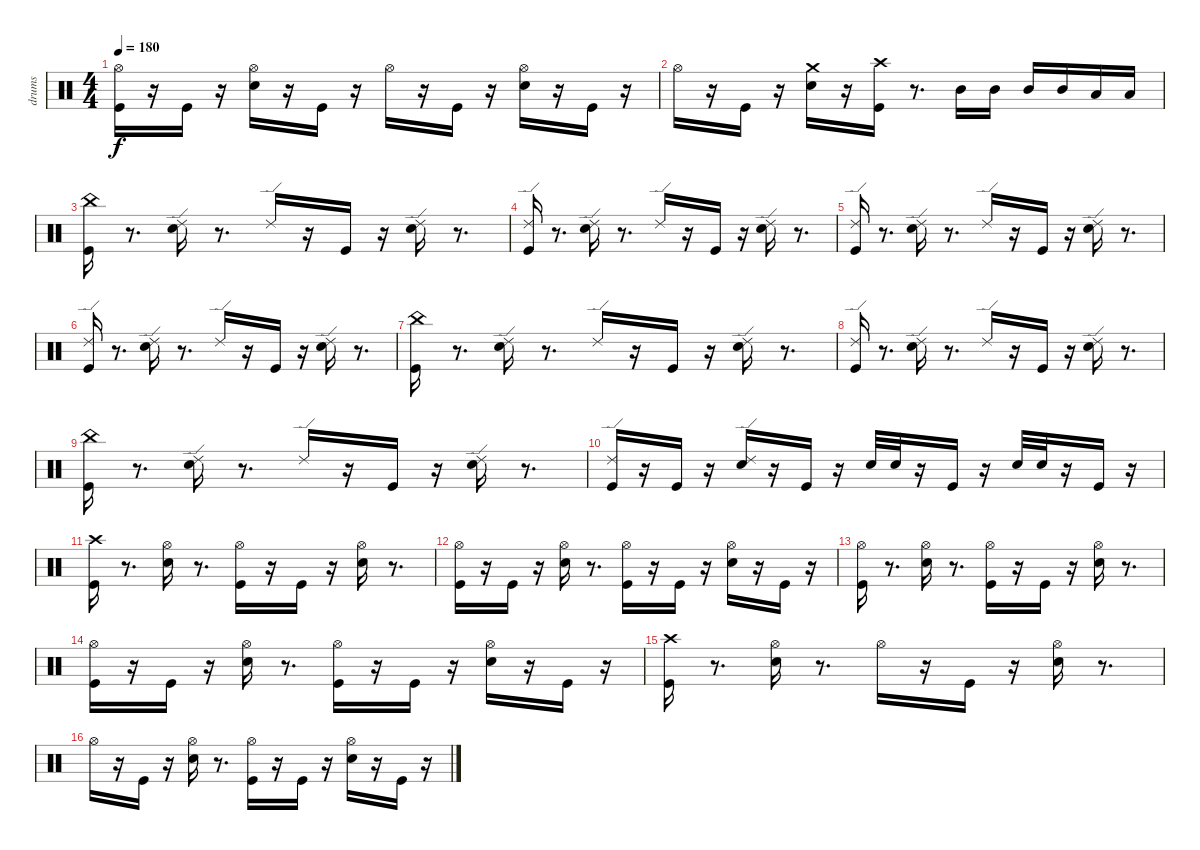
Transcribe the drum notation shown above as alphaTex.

\track ("drums" "drums") {instrument percussion}
\staff {score}
\articulation defaults
\ts (4 4)
\tempo 180
\clef neutral
\ks c
("Hi-Hat (open)" "Kick (hit)").16{dy f} r.16 "Kick (hit)".16 r.16 ("Hi-Hat (open)" "Snare (hit) 2").16 r.16 "Kick (hit)".16 r.16 "Hi-Hat (open)".16 r.16 "Kick (hit)".16 r.16 ("Snare (hit) 2" "Hi-Hat (open)").16 r.16 "Kick (hit)".16 r.16 |
"Hi-Hat (open)".16 r.16 "Kick (hit)".16 r.16 ("Crash medium (hit)" "Snare (hit) 2").16 r.16 ("Crash high (hit)" "Kick (hit)").16 r.8{d} "Mid Tom (hit)".16 "Mid Tom (hit)".16 "Mid Tom (hit)".16 "Mid Tom (hit)".16 "Low Tom (hit)".16 "Low Tom (hit)".16 |
("China (hit)" "Kick (hit)").16 r.8{d} ("Ride (edge) 2" "Snare (hit) 2").16 r.8{d} "Ride (edge) 2".16 r.16 "Kick (hit)".16 r.16 ("Ride (edge) 2" "Snare (hit) 2").16 r.8{d} |
("Ride (edge) 2" "Kick (hit)").16 r.8{d} ("Ride (edge) 2" "Snare (hit) 2").16 r.8{d} "Ride (edge) 2".16 r.16 "Kick (hit)".16 r.16 ("Ride (edge) 2" "Snare (hit) 2").16 r.8{d} |
("Ride (edge) 2" "Kick (hit)").16 r.8{d} ("Ride (edge) 2" "Snare (hit) 2").16 r.8{d} "Ride (edge) 2".16 r.16 "Kick (hit)".16 r.16 ("Ride (edge) 2" "Snare (hit) 2").16 r.8{d} |
("Ride (edge) 2" "Kick (hit)").16 r.8{d} ("Ride (edge) 2" "Snare (hit) 2").16 r.8{d} "Ride (edge) 2".16 r.16 "Kick (hit)".16 r.16 ("Ride (edge) 2" "Snare (hit) 2").16 r.8{d} |
("China (hit)" "Kick (hit)").16 r.8{d} ("Ride (edge) 2" "Snare (hit) 2").16 r.8{d} "Ride (edge) 2".16 r.16 "Kick (hit)".16 r.16 ("Ride (edge) 2" "Snare (hit) 2").16 r.8{d} |
("Ride (edge) 2" "Kick (hit)").16 r.8{d} ("Snare (hit) 2" "Ride (edge) 2").16 r.8{d} "Ride (edge) 2".16 r.16 "Kick (hit)".16 r.16 ("Ride (edge) 2" "Snare (hit) 2").16 r.8{d} |
("China (hit)" "Kick (hit)").16 r.8{d} ("Ride (edge) 2" "Snare (hit) 2").16 r.8{d} "Ride (edge) 2".16 r.16 "Kick (hit)".16 r.16 ("Ride (edge) 2" "Snare (hit) 2").16 r.8{d} |
("Kick (hit)" "Ride (edge) 2").16 r.16 "Kick (hit)".16 r.16 ("Snare (hit) 2" "Ride (edge) 2").16 r.16 "Kick (hit)".16 r.16 "Snare (hit) 2".32 "Snare (hit) 2".32 r.16 "Kick (hit)".16 r.16 "Snare (hit) 2".32 "Snare (hit) 2".32 r.16 "Kick (hit)".16 r.16 |
("Crash high (hit)" "Kick (hit)").16 r.8{d} ("Hi-Hat (open)" "Snare (hit) 2").16 r.8{d} ("Hi-Hat (open)" "Kick (hit)").16 r.16 "Kick (hit)".16 r.16 ("Hi-Hat (open)" "Snare (hit) 2").16 r.8{d} |
("Hi-Hat (open)" "Kick (hit)").16 r.16 "Kick (hit)".16 r.16 ("Hi-Hat (open)" "Snare (hit) 2").16 r.8{d} ("Hi-Hat (open)" "Kick (hit)").16 r.16 "Kick (hit)".16 r.16 ("Hi-Hat (open)" "Snare (hit) 2").16 r.16 "Kick (hit)".16 r.16 |
("Hi-Hat (open)" "Kick (hit)").16 r.8{d} ("Hi-Hat (open)" "Snare (hit) 2").16 r.8{d} ("Hi-Hat (open)" "Kick (hit)").16 r.16 "Kick (hit)".16 r.16 ("Hi-Hat (open)" "Snare (hit) 2").16 r.8{d} |
("Hi-Hat (open)" "Kick (hit)").16 r.16 "Kick (hit)".16 r.16 ("Hi-Hat (open)" "Snare (hit) 2").16 r.8{d} ("Hi-Hat (open)" "Kick (hit)").16 r.16 "Kick (hit)".16 r.16 ("Hi-Hat (open)" "Snare (hit) 2").16 r.16 "Kick (hit)".16 r.16 |
("Crash high (hit)" "Kick (hit)").16 r.8{d} ("Hi-Hat (open)" "Snare (hit) 2").16 r.8{d} "Hi-Hat (open)".16 r.16 "Kick (hit)".16 r.16 ("Hi-Hat (open)" "Snare (hit) 2").16 r.8{d} |
"Hi-Hat (open)".16 r.16 "Kick (hit)".16 r.16 ("Hi-Hat (open)" "Snare (hit) 2").16 r.8{d} ("Kick (hit)" "Hi-Hat (open)").16 r.16 "Kick (hit)".16 r.16 ("Hi-Hat (open)" "Snare (hit) 2").16 r.16 "Kick (hit)".16 r.16
